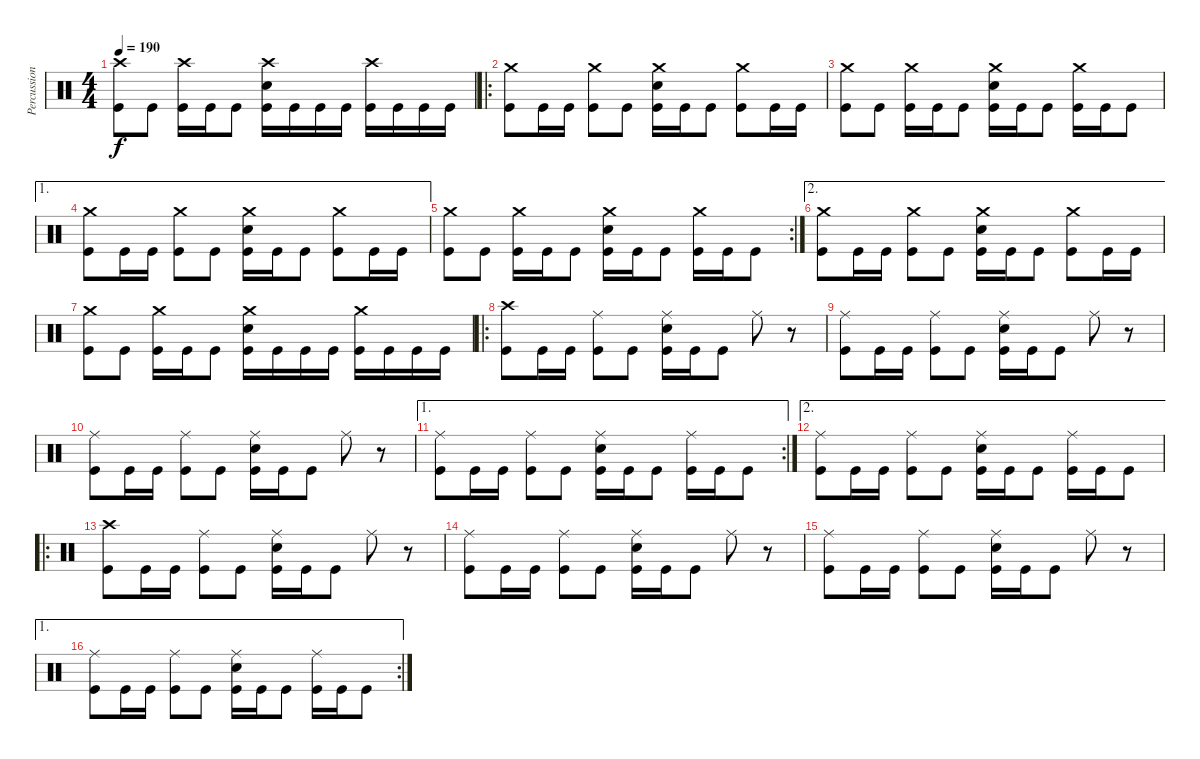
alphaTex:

\track ("Percussion" "Percussion") {instrument percussion}
\staff {score}
\articulation defaults
\ts (4 4)
\tempo 190
\clef neutral
\ks c
("Crash high (hit)" "Kick (hit)").8{dy f} "Kick (hit)".8 ("Crash high (hit)" "Kick (hit)").16 "Kick (hit)".16 "Kick (hit)".8 ("Crash high (hit)" "Electric Snare (hit)" "Kick (hit)").16 "Kick (hit)".16 "Kick (hit)".16 "Kick (hit)".16 ("Crash high (hit)" "Kick (hit)").16 "Kick (hit)".16 "Kick (hit)".16 "Kick (hit)".16 |
\ro
("Crash medium (hit)" "Kick (hit)").8 "Kick (hit)".16 "Kick (hit)".16 ("Crash medium (hit)" "Kick (hit)").8 "Kick (hit)".8 ("Crash medium (hit)" "Electric Snare (hit)" "Kick (hit)").16 "Kick (hit)".16 "Kick (hit)".8 ("Crash medium (hit)" "Kick (hit)").8 "Kick (hit)".16 "Kick (hit)".16 |
("Crash medium (hit)" "Kick (hit)").8 "Kick (hit)".8 ("Crash medium (hit)" "Kick (hit)").16 "Kick (hit)".16 "Kick (hit)".8 ("Crash medium (hit)" "Electric Snare (hit)" "Kick (hit)").16 "Kick (hit)".16 "Kick (hit)".8 ("Crash medium (hit)" "Kick (hit)").16 "Kick (hit)".16 "Kick (hit)".8 |
\ae 1
("Crash medium (hit)" "Kick (hit)").8 "Kick (hit)".16 "Kick (hit)".16 ("Crash medium (hit)" "Kick (hit)").8 "Kick (hit)".8 ("Crash medium (hit)" "Electric Snare (hit)" "Kick (hit)").16 "Kick (hit)".16 "Kick (hit)".8 ("Crash medium (hit)" "Kick (hit)").8 "Kick (hit)".16 "Kick (hit)".16 |
\rc 2
("Crash medium (hit)" "Kick (hit)").8 "Kick (hit)".8 ("Crash medium (hit)" "Kick (hit)").16 "Kick (hit)".16 "Kick (hit)".8 ("Crash medium (hit)" "Electric Snare (hit)" "Kick (hit)").16 "Kick (hit)".16 "Kick (hit)".8 ("Crash medium (hit)" "Kick (hit)").16 "Kick (hit)".16 "Kick (hit)".8 |
\ae 2
("Crash medium (hit)" "Kick (hit)").8 "Kick (hit)".16 "Kick (hit)".16 ("Crash medium (hit)" "Kick (hit)").8 "Kick (hit)".8 ("Crash medium (hit)" "Electric Snare (hit)" "Kick (hit)").16 "Kick (hit)".16 "Kick (hit)".8 ("Crash medium (hit)" "Kick (hit)").8 "Kick (hit)".16 "Kick (hit)".16 |
("Crash medium (hit)" "Kick (hit)").8 "Kick (hit)".8 ("Crash medium (hit)" "Kick (hit)").16 "Kick (hit)".16 "Kick (hit)".8 ("Crash medium (hit)" "Electric Snare (hit)" "Kick (hit)").16 "Kick (hit)".16 "Kick (hit)".16 "Kick (hit)".16 ("Crash medium (hit)" "Kick (hit)").16 "Kick (hit)".16 "Kick (hit)".16 "Kick (hit)".16 |
\ro
("Crash high (hit)" "Kick (hit)").8 "Kick (hit)".16 "Kick (hit)".16 ("Ride (middle)" "Kick (hit)").8 "Kick (hit)".8 ("Ride (middle)" "Electric Snare (hit)" "Kick (hit)").16 "Kick (hit)".16 "Kick (hit)".8 "Ride (middle)".8 r.8 |
("Ride (middle)" "Kick (hit)").8 "Kick (hit)".16 "Kick (hit)".16 ("Ride (middle)" "Kick (hit)").8 "Kick (hit)".8 ("Ride (middle)" "Electric Snare (hit)" "Kick (hit)").16 "Kick (hit)".16 "Kick (hit)".8 "Ride (middle)".8 r.8 |
("Ride (middle)" "Kick (hit)").8 "Kick (hit)".16 "Kick (hit)".16 ("Ride (middle)" "Kick (hit)").8 "Kick (hit)".8 ("Ride (middle)" "Electric Snare (hit)" "Kick (hit)").16 "Kick (hit)".16 "Kick (hit)".8 "Ride (middle)".8 r.8 |
\ae 1
\rc 2
("Ride (middle)" "Kick (hit)").8 "Kick (hit)".16 "Kick (hit)".16 ("Ride (middle)" "Kick (hit)").8 "Kick (hit)".8 ("Ride (middle)" "Electric Snare (hit)" "Kick (hit)").16 "Kick (hit)".16 "Kick (hit)".8 ("Ride (middle)" "Kick (hit)").16 "Kick (hit)".16 "Kick (hit)".8 |
\ae 2
("Ride (middle)" "Kick (hit)").8 "Kick (hit)".16 "Kick (hit)".16 ("Ride (middle)" "Kick (hit)").8 "Kick (hit)".8 ("Ride (middle)" "Electric Snare (hit)" "Kick (hit)").16 "Kick (hit)".16 "Kick (hit)".8 ("Ride (middle)" "Kick (hit)").16 "Kick (hit)".16 "Kick (hit)".8 |
\ro
("Crash high (hit)" "Kick (hit)").8 "Kick (hit)".16 "Kick (hit)".16 ("Ride (middle)" "Kick (hit)").8 "Kick (hit)".8 ("Ride (middle)" "Electric Snare (hit)" "Kick (hit)").16 "Kick (hit)".16 "Kick (hit)".8 "Ride (middle)".8 r.8 |
("Ride (middle)" "Kick (hit)").8 "Kick (hit)".16 "Kick (hit)".16 ("Ride (middle)" "Kick (hit)").8 "Kick (hit)".8 ("Ride (middle)" "Electric Snare (hit)" "Kick (hit)").16 "Kick (hit)".16 "Kick (hit)".8 "Ride (middle)".8 r.8 |
("Ride (middle)" "Kick (hit)").8 "Kick (hit)".16 "Kick (hit)".16 ("Ride (middle)" "Kick (hit)").8 "Kick (hit)".8 ("Ride (middle)" "Electric Snare (hit)" "Kick (hit)").16 "Kick (hit)".16 "Kick (hit)".8 "Ride (middle)".8 r.8 |
\ae 1
\rc 2
("Ride (middle)" "Kick (hit)").8 "Kick (hit)".16 "Kick (hit)".16 ("Ride (middle)" "Kick (hit)").8 "Kick (hit)".8 ("Ride (middle)" "Electric Snare (hit)" "Kick (hit)").16 "Kick (hit)".16 "Kick (hit)".8 ("Ride (middle)" "Kick (hit)").16 "Kick (hit)".16 "Kick (hit)".8
